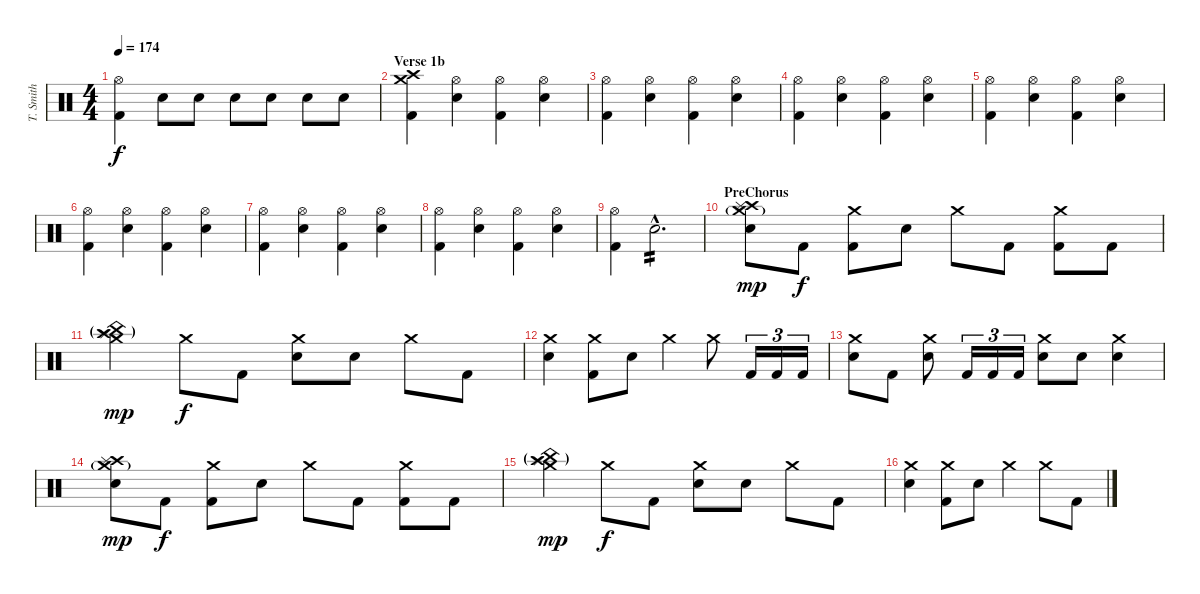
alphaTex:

\track ("T. Smith" "T. Smith") {instrument percussion}
\staff {score}
\articulation defaults
\ts (4 4)
\tempo 174
\clef neutral
\ks c
("Hi-Hat (open)" "Kick (hit) 2").4{dy f} "Electric Snare (hit)".8 "Electric Snare (hit)".8 "Electric Snare (hit)".8 "Electric Snare (hit)".8 "Electric Snare (hit)".8 "Electric Snare (hit)".8 |
\section ("" "Verse 1b")
("Crash high (hit)" "Crash medium (hit)" "Kick (hit) 2").4 ("Hi-Hat (open)" "Electric Snare (hit)").4 ("Hi-Hat (open)" "Kick (hit) 2").4 ("Hi-Hat (open)" "Electric Snare (hit)").4 |
("Hi-Hat (open)" "Kick (hit) 2").4 ("Hi-Hat (open)" "Electric Snare (hit)").4 ("Hi-Hat (open)" "Kick (hit) 2").4 ("Hi-Hat (open)" "Electric Snare (hit)").4 |
("Hi-Hat (open)" "Kick (hit) 2").4 ("Hi-Hat (open)" "Electric Snare (hit)").4 ("Hi-Hat (open)" "Kick (hit) 2").4 ("Hi-Hat (open)" "Electric Snare (hit)").4 |
("Hi-Hat (open)" "Kick (hit) 2").4 ("Hi-Hat (open)" "Electric Snare (hit)").4 ("Hi-Hat (open)" "Kick (hit) 2").4 ("Hi-Hat (open)" "Electric Snare (hit)").4 |
("Hi-Hat (open)" "Kick (hit) 2").4 ("Hi-Hat (open)" "Electric Snare (hit)").4 ("Hi-Hat (open)" "Kick (hit) 2").4 ("Hi-Hat (open)" "Electric Snare (hit)").4 |
("Hi-Hat (open)" "Kick (hit) 2").4 ("Hi-Hat (open)" "Electric Snare (hit)").4 ("Hi-Hat (open)" "Kick (hit) 2").4 ("Hi-Hat (open)" "Electric Snare (hit)").4 |
("Hi-Hat (open)" "Kick (hit) 2").4 ("Hi-Hat (open)" "Electric Snare (hit)").4 ("Hi-Hat (open)" "Kick (hit) 2").4 ("Hi-Hat (open)" "Electric Snare (hit)").4 |
("Hi-Hat (open)" "Kick (hit) 2").4 "Electric Snare (hit)"{hac}.2{d tp 2} |
\section ("" "PreChorus")
("Crash medium (hit)"{g} "Crash high (hit)" "Splash (hit)" "Electric Snare (hit)").8{dy mp} "Kick (hit) 2".8{dy f} ("Crash medium (hit)" "Kick (hit) 2").8 "Electric Snare (hit)".8 "Crash medium (hit)".8 "Kick (hit) 2".8 ("Crash medium (hit)" "Kick (hit) 2").8 "Kick (hit) 2".8 |
("Crash medium (hit)" "Crash high (hit)"{g} "Splash (hit)" "China (hit)"{g}).4{dy mp} "Crash medium (hit)".8{dy f} "Kick (hit) 2".8 ("Crash medium (hit)" "Electric Snare (hit)").8 "Electric Snare (hit)".8 "Crash medium (hit)".8 "Kick (hit) 2".8 |
("Crash medium (hit)" "Electric Snare (hit)").4 ("Crash medium (hit)" "Kick (hit) 2").8 "Electric Snare (hit)".8 "Crash medium (hit)".4 "Crash medium (hit)".8 "Kick (hit) 2".16{tu (3 2)} "Kick (hit) 2".16{tu (3 2)} "Kick (hit) 2".16{tu (3 2)} |
("Crash medium (hit)" "Electric Snare (hit)").8 "Kick (hit) 2".8 ("Crash medium (hit)" "Electric Snare (hit)").8 "Kick (hit) 2".16{tu (3 2)} "Kick (hit) 2".16{tu (3 2)} "Kick (hit) 2".16{tu (3 2)} ("Crash medium (hit)" "Electric Snare (hit)").8 "Electric Snare (hit)".8 ("Crash medium (hit)" "Electric Snare (hit)").4 |
("Crash medium (hit)"{g} "Crash high (hit)" "Splash (hit)" "Electric Snare (hit)").8{dy mp} "Kick (hit) 2".8{dy f} ("Crash medium (hit)" "Kick (hit) 2").8 "Electric Snare (hit)".8 "Crash medium (hit)".8 "Kick (hit) 2".8 ("Crash medium (hit)" "Kick (hit) 2").8 "Kick (hit) 2".8 |
("Crash medium (hit)" "Crash high (hit)"{g} "Splash (hit)" "China (hit)"{g}).4{dy mp} "Crash medium (hit)".8{dy f} "Kick (hit) 2".8 ("Crash medium (hit)" "Electric Snare (hit)").8 "Electric Snare (hit)".8 "Crash medium (hit)".8 "Kick (hit) 2".8 |
("Crash medium (hit)" "Electric Snare (hit)").4 ("Crash medium (hit)" "Kick (hit) 2").8 "Electric Snare (hit)".8 "Crash medium (hit)".4 "Crash medium (hit)".8 "Kick (hit) 2".8
